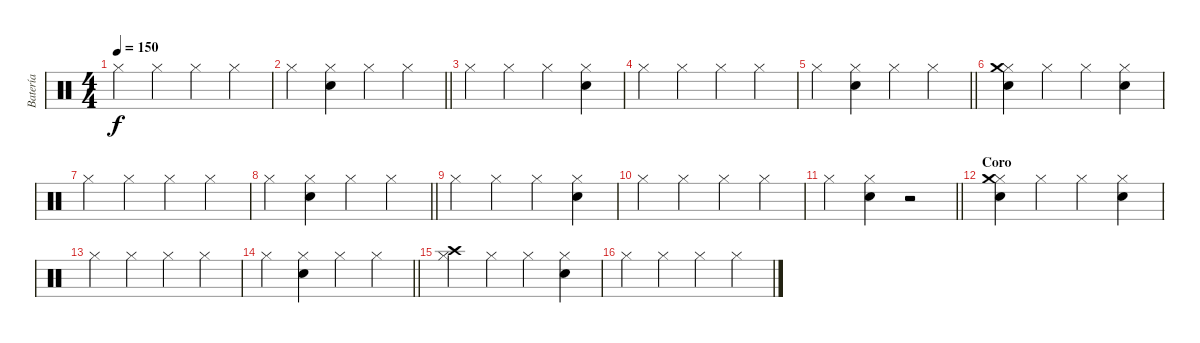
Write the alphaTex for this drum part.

\track ("Batería" "Batería") {instrument percussion}
\staff {score}
\articulation defaults
\ts (4 4)
\tempo 150
\clef neutral
\ks c "Hi-Hat (closed)".4{dy f} "Hi-Hat (closed)".4 "Hi-Hat (closed)".4 "Hi-Hat (closed)".4
|
\barLineRight lightlight "Hi-Hat (closed)".4
("Hi-Hat (closed)" "Electric Snare (hit)").4 "Hi-Hat (closed)".4 "Hi-Hat (closed)".4 |
"Hi-Hat (closed)".4 "Hi-Hat (closed)".4 "Hi-Hat (closed)".4 ("Hi-Hat (closed)" "Electric Snare (hit)").4 |
"Hi-Hat (closed)".4 "Hi-Hat (closed)".4 "Hi-Hat (closed)".4 "Hi-Hat (closed)".4 |
\barLineRight lightlight "Hi-Hat (closed)".4
("Hi-Hat (closed)" "Electric Snare (hit)").4 "Hi-Hat (closed)".4 "Hi-Hat (closed)".4 |
\section ("" "")
("Hi-Hat (closed)" "Electric Snare (hit)" "Crash medium (hit)").4 "Hi-Hat (closed)".4 "Hi-Hat (closed)".4 ("Hi-Hat (closed)" "Electric Snare (hit)").4 |
"Hi-Hat (closed)".4 "Hi-Hat (closed)".4 "Hi-Hat (closed)".4 "Hi-Hat (closed)".4 |
\barLineRight lightlight "Hi-Hat (closed)".4
("Hi-Hat (closed)" "Electric Snare (hit)").4 "Hi-Hat (closed)".4 "Hi-Hat (closed)".4 |
"Hi-Hat (closed)".4 "Hi-Hat (closed)".4 "Hi-Hat (closed)".4 ("Hi-Hat (closed)" "Electric Snare (hit)").4 |
"Hi-Hat (closed)".4 "Hi-Hat (closed)".4 "Hi-Hat (closed)".4 "Hi-Hat (closed)".4 |
\barLineRight lightlight "Hi-Hat (closed)".4
("Hi-Hat (closed)" "Electric Snare (hit)").4 r.2 |
\section ("" "Coro")
("Hi-Hat (closed)" "Electric Snare (hit)" "Crash medium (hit)").4 "Hi-Hat (closed)".4 "Hi-Hat (closed)".4 ("Hi-Hat (closed)" "Electric Snare (hit)").4 |
"Hi-Hat (closed)".4 "Hi-Hat (closed)".4 "Hi-Hat (closed)".4 "Hi-Hat (closed)".4 |
\barLineRight lightlight "Hi-Hat (closed)".4
("Hi-Hat (closed)" "Electric Snare (hit)").4 "Hi-Hat (closed)".4 "Hi-Hat (closed)".4 |
("Hi-Hat (closed)" "Crash high (hit)").4 "Hi-Hat (closed)".4 "Hi-Hat (closed)".4 ("Hi-Hat (closed)" "Electric Snare (hit)").4 |
"Hi-Hat (closed)".4 "Hi-Hat (closed)".4 "Hi-Hat (closed)".4 "Hi-Hat (closed)".4
